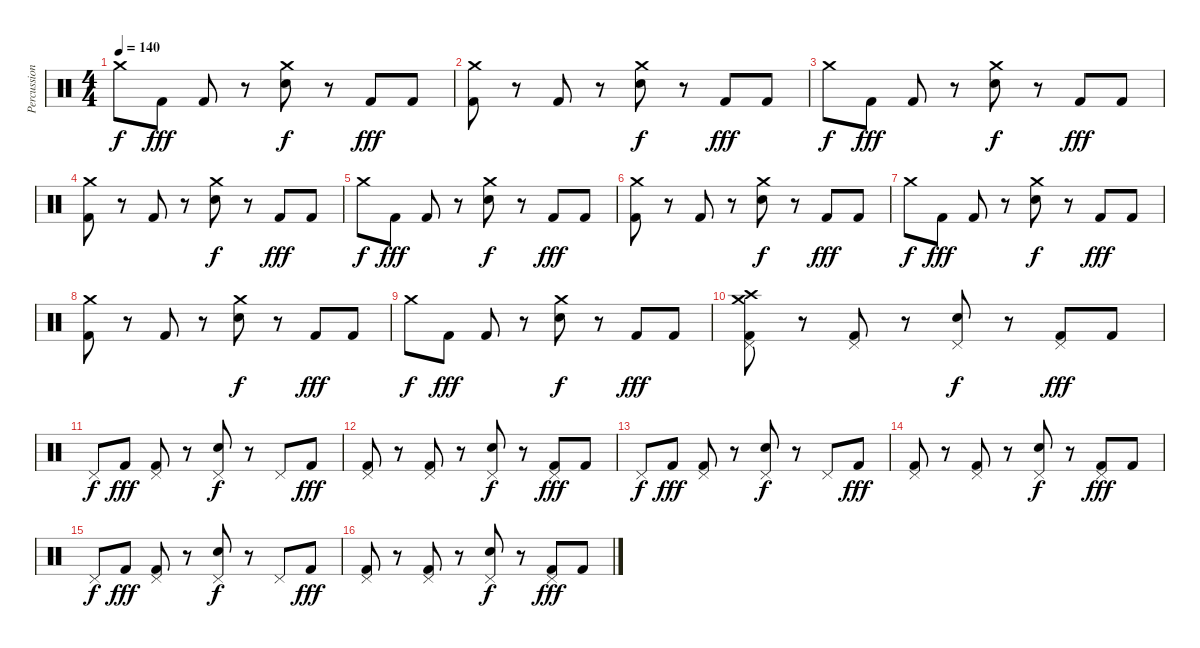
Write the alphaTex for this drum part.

\track ("Percussion" "Percussion") {instrument percussion}
\staff {score}
\articulation defaults
\ts (4 4)
\tempo 140
\clef neutral
\ks c "Crash medium (hit)".8{dy f} "Kick (hit) 2".8{dy fff} "Kick (hit) 2".8
r.8 ("Crash medium (hit)" "Electric Snare (hit)").8{dy f} r.8 "Kick (hit) 2".8{dy fff} "Kick (hit) 2".8 |
("Crash medium (hit)" "Kick (hit) 2").8 r.8 "Kick (hit) 2".8 r.8 ("Crash medium (hit)" "Electric Snare (hit)").8{dy f} r.8 "Kick (hit) 2".8{dy fff} "Kick (hit) 2".8 |
"Crash medium (hit)".8{dy f} "Kick (hit) 2".8{dy fff} "Kick (hit) 2".8 r.8 ("Crash medium (hit)" "Electric Snare (hit)").8{dy f} r.8 "Kick (hit) 2".8{dy fff} "Kick (hit) 2".8 |
("Crash medium (hit)" "Kick (hit) 2").8 r.8 "Kick (hit) 2".8 r.8 ("Crash medium (hit)" "Electric Snare (hit)").8{dy f} r.8 "Kick (hit) 2".8{dy fff} "Kick (hit) 2".8 |
"Crash medium (hit)".8{dy f} "Kick (hit) 2".8{dy fff} "Kick (hit) 2".8 r.8 ("Crash medium (hit)" "Electric Snare (hit)").8{dy f} r.8 "Kick (hit) 2".8{dy fff} "Kick (hit) 2".8 |
("Crash medium (hit)" "Kick (hit) 2").8 r.8 "Kick (hit) 2".8 r.8 ("Crash medium (hit)" "Electric Snare (hit)").8{dy f} r.8 "Kick (hit) 2".8{dy fff} "Kick (hit) 2".8 |
"Crash medium (hit)".8{dy f} "Kick (hit) 2".8{dy fff} "Kick (hit) 2".8 r.8 ("Crash medium (hit)" "Electric Snare (hit)").8{dy f} r.8 "Kick (hit) 2".8{dy fff} "Kick (hit) 2".8 |
("Crash medium (hit)" "Kick (hit) 2").8 r.8 "Kick (hit) 2".8 r.8 ("Crash medium (hit)" "Electric Snare (hit)").8{dy f} r.8 "Kick (hit) 2".8{dy fff} "Kick (hit) 2".8 |
"Crash medium (hit)".8{dy f} "Kick (hit) 2".8{dy fff} "Kick (hit) 2".8 r.8 ("Crash medium (hit)" "Electric Snare (hit)").8{dy f} r.8 "Kick (hit) 2".8{dy fff} "Kick (hit) 2".8 |
("Pedal Hi-Hat (hit)" "Crash medium (hit)" "Crash high (hit)" "Kick (hit) 2").8 r.8 ("Pedal Hi-Hat (hit)" "Kick (hit) 2").8 r.8 ("Pedal Hi-Hat (hit)" "Electric Snare (hit)").8{dy f} r.8 ("Pedal Hi-Hat (hit)" "Kick (hit) 2").8{dy fff} "Kick (hit) 2".8 |
"Pedal Hi-Hat (hit)".8{dy f} "Kick (hit) 2".8{dy fff} ("Pedal Hi-Hat (hit)" "Kick (hit) 2").8 r.8 ("Pedal Hi-Hat (hit)" "Electric Snare (hit)").8{dy f} r.8 "Pedal Hi-Hat (hit)".8 "Kick (hit) 2".8{dy fff} |
("Pedal Hi-Hat (hit)" "Kick (hit) 2").8 r.8 ("Pedal Hi-Hat (hit)" "Kick (hit) 2").8 r.8 ("Pedal Hi-Hat (hit)" "Electric Snare (hit)").8{dy f} r.8 ("Pedal Hi-Hat (hit)" "Kick (hit) 2").8{dy fff} "Kick (hit) 2".8 |
"Pedal Hi-Hat (hit)".8{dy f} "Kick (hit) 2".8{dy fff} ("Pedal Hi-Hat (hit)" "Kick (hit) 2").8 r.8 ("Pedal Hi-Hat (hit)" "Electric Snare (hit)").8{dy f} r.8 "Pedal Hi-Hat (hit)".8 "Kick (hit) 2".8{dy fff} |
("Pedal Hi-Hat (hit)" "Kick (hit) 2").8 r.8 ("Pedal Hi-Hat (hit)" "Kick (hit) 2").8 r.8 ("Pedal Hi-Hat (hit)" "Electric Snare (hit)").8{dy f} r.8 ("Pedal Hi-Hat (hit)" "Kick (hit) 2").8{dy fff} "Kick (hit) 2".8 |
"Pedal Hi-Hat (hit)".8{dy f} "Kick (hit) 2".8{dy fff} ("Pedal Hi-Hat (hit)" "Kick (hit) 2").8 r.8 ("Pedal Hi-Hat (hit)" "Electric Snare (hit)").8{dy f} r.8 "Pedal Hi-Hat (hit)".8 "Kick (hit) 2".8{dy fff} |
("Pedal Hi-Hat (hit)" "Kick (hit) 2").8 r.8 ("Pedal Hi-Hat (hit)" "Kick (hit) 2").8 r.8 ("Pedal Hi-Hat (hit)" "Electric Snare (hit)").8{dy f} r.8 ("Pedal Hi-Hat (hit)" "Kick (hit) 2").8{dy fff} "Kick (hit) 2".8
